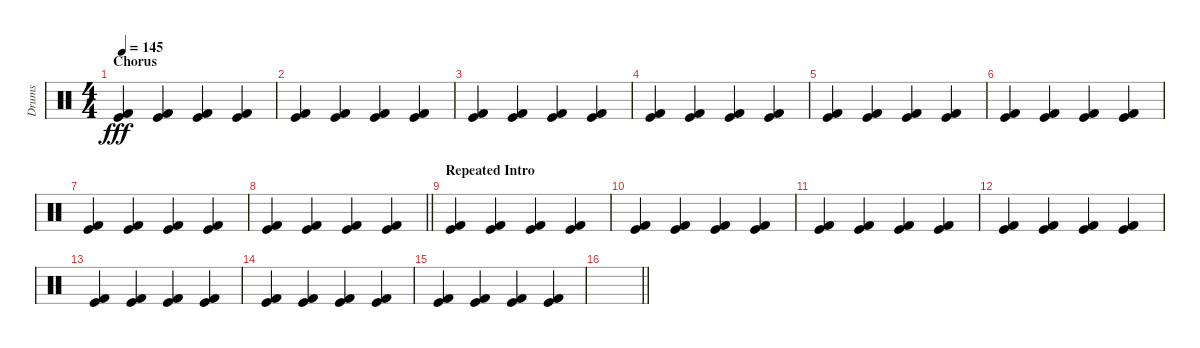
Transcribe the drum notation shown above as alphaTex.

\track ("Drums" "Drums") {instrument percussion}
\staff {score}
\articulation defaults
\ts (4 4)
\section ("" "Chorus")
\tempo 145
\clef neutral
\ks c
("Kick (hit)" "Kick (hit) 2").4{dy fff} ("Kick (hit)" "Kick (hit) 2").4 ("Kick (hit)" "Kick (hit) 2").4 ("Kick (hit)" "Kick (hit) 2").4 |
("Kick (hit)" "Kick (hit) 2").4 ("Kick (hit)" "Kick (hit) 2").4 ("Kick (hit)" "Kick (hit) 2").4 ("Kick (hit)" "Kick (hit) 2").4 |
("Kick (hit)" "Kick (hit) 2").4 ("Kick (hit)" "Kick (hit) 2").4 ("Kick (hit)" "Kick (hit) 2").4 ("Kick (hit)" "Kick (hit) 2").4 |
("Kick (hit)" "Kick (hit) 2").4 ("Kick (hit)" "Kick (hit) 2").4 ("Kick (hit)" "Kick (hit) 2").4 ("Kick (hit)" "Kick (hit) 2").4 |
("Kick (hit)" "Kick (hit) 2").4 ("Kick (hit)" "Kick (hit) 2").4 ("Kick (hit)" "Kick (hit) 2").4 ("Kick (hit)" "Kick (hit) 2").4 |
("Kick (hit)" "Kick (hit) 2").4 ("Kick (hit)" "Kick (hit) 2").4 ("Kick (hit)" "Kick (hit) 2").4 ("Kick (hit)" "Kick (hit) 2").4 |
("Kick (hit)" "Kick (hit) 2").4 ("Kick (hit)" "Kick (hit) 2").4 ("Kick (hit)" "Kick (hit) 2").4 ("Kick (hit)" "Kick (hit) 2").4 |
\barLineRight lightlight
("Kick (hit)" "Kick (hit) 2").4 ("Kick (hit)" "Kick (hit) 2").4 ("Kick (hit)" "Kick (hit) 2").4 ("Kick (hit)" "Kick (hit) 2").4 |
\section ("" "Repeated Intro")
("Kick (hit)" "Kick (hit) 2").4 ("Kick (hit)" "Kick (hit) 2").4 ("Kick (hit)" "Kick (hit) 2").4 ("Kick (hit)" "Kick (hit) 2").4 |
("Kick (hit)" "Kick (hit) 2").4 ("Kick (hit)" "Kick (hit) 2").4 ("Kick (hit)" "Kick (hit) 2").4 ("Kick (hit)" "Kick (hit) 2").4 |
("Kick (hit)" "Kick (hit) 2").4 ("Kick (hit)" "Kick (hit) 2").4 ("Kick (hit)" "Kick (hit) 2").4 ("Kick (hit)" "Kick (hit) 2").4 |
("Kick (hit)" "Kick (hit) 2").4 ("Kick (hit)" "Kick (hit) 2").4 ("Kick (hit)" "Kick (hit) 2").4 ("Kick (hit)" "Kick (hit) 2").4 |
("Kick (hit)" "Kick (hit) 2").4 ("Kick (hit)" "Kick (hit) 2").4 ("Kick (hit)" "Kick (hit) 2").4 ("Kick (hit)" "Kick (hit) 2").4 |
("Kick (hit)" "Kick (hit) 2").4 ("Kick (hit)" "Kick (hit) 2").4 ("Kick (hit)" "Kick (hit) 2").4 ("Kick (hit)" "Kick (hit) 2").4 |
("Kick (hit)" "Kick (hit) 2").4 ("Kick (hit)" "Kick (hit) 2").4 ("Kick (hit)" "Kick (hit) 2").4 ("Kick (hit)" "Kick (hit) 2").4 |
\barLineRight lightlight
